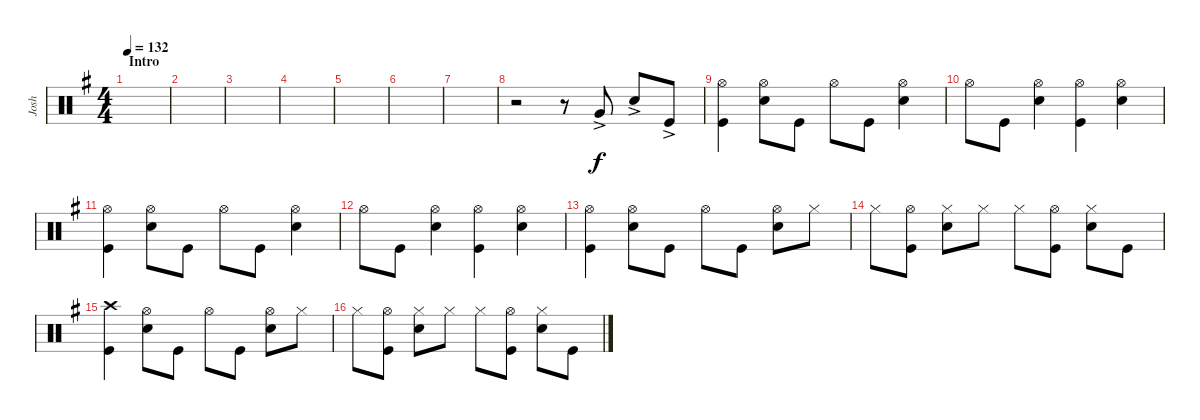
\track ("Josh" "Josh") {instrument percussion}
\staff {score}
\articulation defaults
\ts (4 4)
\section ("" "Intro")
\tempo 132
\clef neutral
\ks g
|
|
|
|
|
|
|
r.2 r.8 "Very Low Tom (hit)"{ac}.8 "Snare (hit) 2"{ac}.8 "Kick (hit)"{ac}.8 |
("Kick (hit)" "Hi-Hat (open)").4 ("Snare (hit) 2" "Hi-Hat (open)").8 "Kick (hit)".8 "Hi-Hat (open)".8 "Kick (hit)".8 ("Hi-Hat (open)" "Snare (hit) 2").4 |
"Hi-Hat (open)".8 "Kick (hit)".8 ("Snare (hit) 2" "Hi-Hat (open)").4 ("Kick (hit)" "Hi-Hat (open)").4 ("Snare (hit) 2" "Hi-Hat (open)").4 |
("Kick (hit)" "Hi-Hat (open)").4 ("Snare (hit) 2" "Hi-Hat (open)").8 "Kick (hit)".8 "Hi-Hat (open)".8 "Kick (hit)".8 ("Hi-Hat (open)" "Snare (hit) 2").4 |
"Hi-Hat (open)".8 "Kick (hit)".8 ("Snare (hit) 2" "Hi-Hat (open)").4 ("Kick (hit)" "Hi-Hat (open)").4 ("Snare (hit) 2" "Hi-Hat (open)").4 |
("Kick (hit)" "Hi-Hat (open)").4 ("Snare (hit) 2" "Hi-Hat (open)").8 "Kick (hit)".8 "Hi-Hat (open)".8 "Kick (hit)".8 ("Hi-Hat (open)" "Snare (hit) 2").8 "Hi-Hat (closed)".8 |
"Hi-Hat (closed)".8 ("Kick (hit)" "Hi-Hat (open)").8 ("Snare (hit) 2" "Hi-Hat (closed)").8 "Hi-Hat (closed)".8 "Hi-Hat (closed)".8 ("Kick (hit)" "Hi-Hat (open)").8 ("Snare (hit) 2" "Hi-Hat (closed)").8 "Kick (hit)".8 |
("Kick (hit)" "Crash high (hit)").4 ("Snare (hit) 2" "Hi-Hat (open)").8 "Kick (hit)".8 "Hi-Hat (open)".8 "Kick (hit)".8 ("Hi-Hat (open)" "Snare (hit) 2").8 "Hi-Hat (closed)".8 |
"Hi-Hat (closed)".8 ("Kick (hit)" "Hi-Hat (open)").8 ("Snare (hit) 2" "Hi-Hat (closed)").8 "Hi-Hat (closed)".8 "Hi-Hat (closed)".8 ("Kick (hit)" "Hi-Hat (open)").8 ("Snare (hit) 2" "Hi-Hat (closed)").8 "Kick (hit)".8
